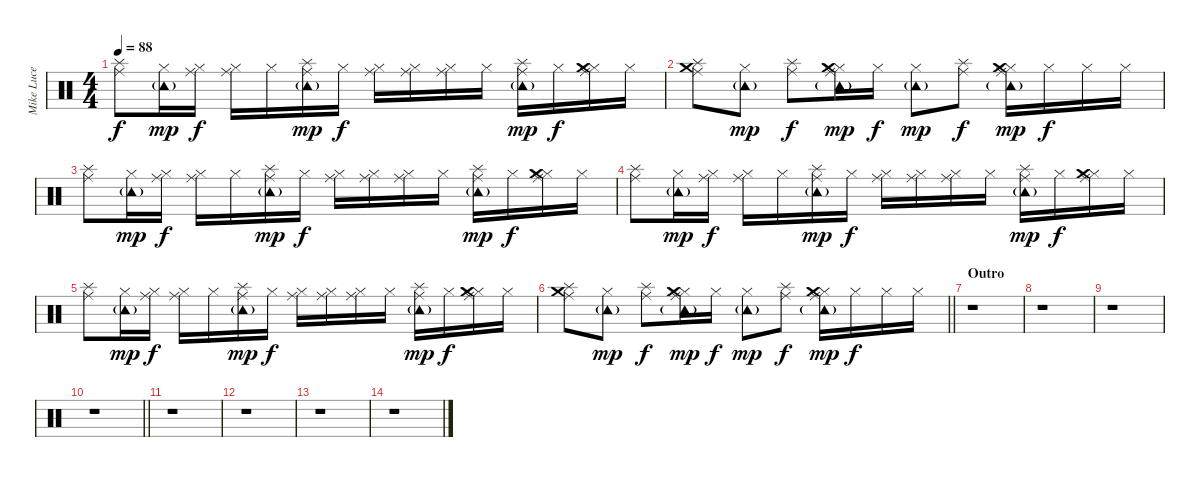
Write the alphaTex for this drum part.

\track ("Mike Luce (Drums)" "Mike Luce ") {instrument percussion}
\staff {score}
\articulation defaults
\ts (4 4)
\tempo 88
\clef neutral
\ks c
("Splash (hit)" "Ride (middle)").8{dy f} ("Hi-Hat (closed)" "Tambourine (hit)"{g}).16{dy mp} ("Hi-Hat (closed)" "Ride (middle)").16{dy f} ("Hi-Hat (closed)" "Ride (middle)").16 "Hi-Hat (closed)".16 ("Splash (hit)" "Tambourine (hit)"{g} "Ride (middle)").16{dy mp} "Hi-Hat (closed)".16{dy f} ("Hi-Hat (closed)" "Ride (middle)").16 ("Hi-Hat (closed)" "Ride (middle)").16 ("Hi-Hat (closed)" "Ride (middle)").16 "Hi-Hat (closed)".16 ("Splash (hit)" "Tambourine (hit)"{g} "Ride (middle)").16{dy mp} "Hi-Hat (closed)".16{dy f} ("Hi-Hat (closed)" "Crash medium (hit)" "Ride (middle)").16 "Hi-Hat (closed)".16 |
("Splash (hit)" "Crash medium (hit)" "Ride (middle)").8 ("Hi-Hat (closed)" "Tambourine (hit)"{g}).8{dy mp} ("Splash (hit)" "Ride (middle)").8{dy f} ("Hi-Hat (closed)" "Tambourine (hit)"{g} "Crash medium (hit)" "Ride (middle)").16{dy mp} "Hi-Hat (closed)".16{dy f} ("Hi-Hat (closed)" "Tambourine (hit)"{g}).8{dy mp} ("Splash (hit)" "Ride (middle)").8{dy f} ("Hi-Hat (closed)" "Tambourine (hit)"{g} "Crash medium (hit)" "Ride (middle)").16{dy mp} "Hi-Hat (closed)".16{dy f} "Hi-Hat (closed)".16 "Hi-Hat (closed)".16 |
("Splash (hit)" "Ride (middle)").8 ("Hi-Hat (closed)" "Tambourine (hit)"{g}).16{dy mp} ("Hi-Hat (closed)" "Ride (middle)").16{dy f} ("Hi-Hat (closed)" "Ride (middle)").16 "Hi-Hat (closed)".16 ("Splash (hit)" "Tambourine (hit)"{g} "Ride (middle)").16{dy mp} "Hi-Hat (closed)".16{dy f} ("Hi-Hat (closed)" "Ride (middle)").16 ("Hi-Hat (closed)" "Ride (middle)").16 ("Hi-Hat (closed)" "Ride (middle)").16 "Hi-Hat (closed)".16 ("Splash (hit)" "Tambourine (hit)"{g} "Ride (middle)").16{dy mp} "Hi-Hat (closed)".16{dy f} ("Hi-Hat (closed)" "Crash medium (hit)" "Ride (middle)").16 "Hi-Hat (closed)".16 |
("Splash (hit)" "Ride (middle)").8 ("Hi-Hat (closed)" "Tambourine (hit)"{g}).16{dy mp} ("Hi-Hat (closed)" "Ride (middle)").16{dy f} ("Hi-Hat (closed)" "Ride (middle)").16 "Hi-Hat (closed)".16 ("Splash (hit)" "Tambourine (hit)"{g} "Ride (middle)").16{dy mp} "Hi-Hat (closed)".16{dy f} ("Hi-Hat (closed)" "Ride (middle)").16 ("Hi-Hat (closed)" "Ride (middle)").16 ("Hi-Hat (closed)" "Ride (middle)").16 "Hi-Hat (closed)".16 ("Splash (hit)" "Tambourine (hit)"{g} "Ride (middle)").16{dy mp} "Hi-Hat (closed)".16{dy f} ("Hi-Hat (closed)" "Crash medium (hit)" "Ride (middle)").16 "Hi-Hat (closed)".16 |
("Splash (hit)" "Ride (middle)").8 ("Hi-Hat (closed)" "Tambourine (hit)"{g}).16{dy mp} ("Hi-Hat (closed)" "Ride (middle)").16{dy f} ("Hi-Hat (closed)" "Ride (middle)").16 "Hi-Hat (closed)".16 ("Splash (hit)" "Tambourine (hit)"{g} "Ride (middle)").16{dy mp} "Hi-Hat (closed)".16{dy f} ("Hi-Hat (closed)" "Ride (middle)").16 ("Hi-Hat (closed)" "Ride (middle)").16 ("Hi-Hat (closed)" "Ride (middle)").16 "Hi-Hat (closed)".16 ("Splash (hit)" "Tambourine (hit)"{g} "Ride (middle)").16{dy mp} "Hi-Hat (closed)".16{dy f} ("Hi-Hat (closed)" "Crash medium (hit)" "Ride (middle)").16 "Hi-Hat (closed)".16 |
\barLineRight lightlight
("Splash (hit)" "Crash medium (hit)" "Ride (middle)").8 ("Hi-Hat (closed)" "Tambourine (hit)"{g}).8{dy mp} ("Splash (hit)" "Ride (middle)").8{dy f} ("Hi-Hat (closed)" "Tambourine (hit)"{g} "Crash medium (hit)" "Ride (middle)").16{dy mp} "Hi-Hat (closed)".16{dy f} ("Hi-Hat (closed)" "Tambourine (hit)"{g}).8{dy mp} ("Splash (hit)" "Ride (middle)").8{dy f} ("Hi-Hat (closed)" "Tambourine (hit)"{g} "Crash medium (hit)" "Ride (middle)").16{dy mp} "Hi-Hat (closed)".16{dy f} "Hi-Hat (closed)".16 "Hi-Hat (closed)".16 |
\section ("" "Outro")
r.1 |
r.1 |
r.1 |
\barLineRight lightlight
r.1 |
r.1 |
r.1 |
r.1 |
r.1
